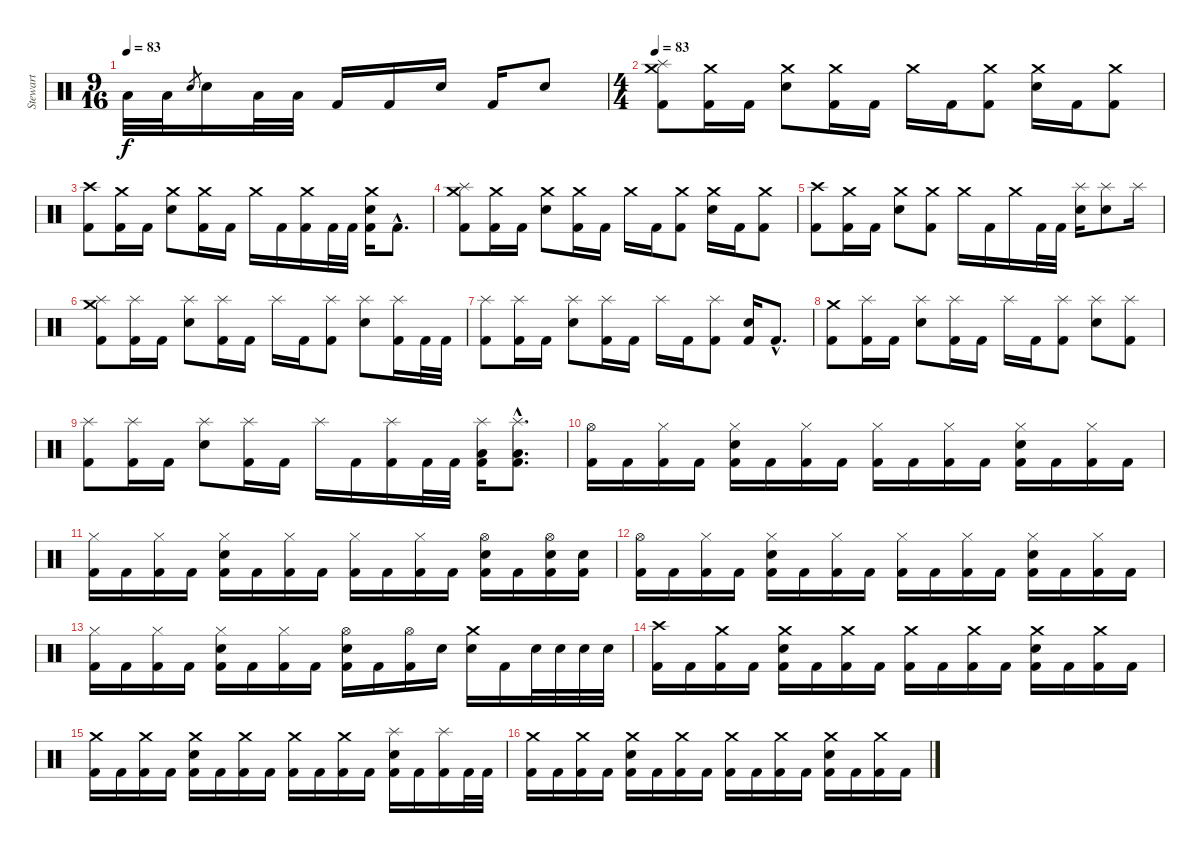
\track ("Stewart" "Stewart") {instrument percussion}
\staff {score}
\articulation defaults
\ts (9 16)
\tempo 83
\tempo 87
\tempo 83
\clef neutral
\ks c "Low Tom (hit)".32{dy f} "Low Tom (hit)".32 "Electric Snare (hit)".8{gr} "Electric Snare (hit)".16 "Low Tom (hit)".32 "Low Tom (hit)".32 "Kick (hit) 2".16 "Kick (hit) 2".16 "Electric Snare (hit)".16 "Kick (hit) 2".16 "Electric Snare (hit)".8
|
\ts (4 4)
\tempo 83
("Crash medium (hit)" "Splash (hit)" "Kick (hit) 2").8 ("Crash medium (hit)" "Kick (hit) 2").16 "Kick (hit) 2".16 ("Crash medium (hit)" "Electric Snare (hit)").8 ("Crash medium (hit)" "Kick (hit) 2").16 "Kick (hit) 2".16 "Crash medium (hit)".16 "Kick (hit) 2".16 ("Crash medium (hit)" "Kick (hit) 2").8 ("Crash medium (hit)" "Electric Snare (hit)").16 "Kick (hit) 2".16 ("Crash medium (hit)" "Kick (hit) 2").8 |
("Crash high (hit)" "Kick (hit) 2").8 ("Crash medium (hit)" "Kick (hit) 2").16 "Kick (hit) 2".16 ("Crash medium (hit)" "Electric Snare (hit)").8 ("Crash medium (hit)" "Kick (hit) 2").16 "Kick (hit) 2".16 "Crash medium (hit)".16 "Kick (hit) 2".16 ("Crash medium (hit)" "Kick (hit) 2").16 "Kick (hit) 2".32 "Kick (hit) 2".32 ("Crash medium (hit)" "Electric Snare (hit)" "Kick (hit) 2").16 "Kick (hit) 2"{hac}.8{d} |
("Crash medium (hit)" "Splash (hit)" "Kick (hit) 2").8 ("Crash medium (hit)" "Kick (hit) 2").16 "Kick (hit) 2".16 ("Crash medium (hit)" "Electric Snare (hit)").8 ("Crash medium (hit)" "Kick (hit) 2").16 "Kick (hit) 2".16 "Crash medium (hit)".16 "Kick (hit) 2".16 ("Crash medium (hit)" "Kick (hit) 2").8 ("Crash medium (hit)" "Electric Snare (hit)").16 "Kick (hit) 2".16 ("Crash medium (hit)" "Kick (hit) 2").8 |
("Crash high (hit)" "Kick (hit) 2").8 ("Crash medium (hit)" "Kick (hit) 2").16 "Kick (hit) 2".16 ("Crash medium (hit)" "Electric Snare (hit)").8 ("Crash medium (hit)" "Kick (hit) 2").8 "Crash medium (hit)".16 "Kick (hit) 2".16 "Crash medium (hit)".16 "Kick (hit) 2".32 "Kick (hit) 2".32 ("Splash (hit)" "Electric Snare (hit)").16 ("Splash (hit)" "Electric Snare (hit)").8 "Splash (hit)".16 |
("Crash medium (hit)" "Splash (hit)" "Kick (hit) 2").8 ("Splash (hit)" "Kick (hit) 2").16 "Kick (hit) 2".16 ("Splash (hit)" "Electric Snare (hit)").8 ("Splash (hit)" "Kick (hit) 2").16 "Kick (hit) 2".16 "Splash (hit)".16 "Kick (hit) 2".16 ("Splash (hit)" "Kick (hit) 2").8 ("Splash (hit)" "Electric Snare (hit)").8 ("Splash (hit)" "Kick (hit) 2").16 "Kick (hit) 2".32 "Kick (hit) 2".32 |
("Splash (hit)" "Kick (hit) 2").8 ("Splash (hit)" "Kick (hit) 2").16 "Kick (hit) 2".16 ("Splash (hit)" "Electric Snare (hit)").8 ("Splash (hit)" "Kick (hit) 2").16 "Kick (hit) 2".16 "Splash (hit)".16 "Kick (hit) 2".16 ("Splash (hit)" "Kick (hit) 2").8 ("Electric Snare (hit)" "Kick (hit) 2").16 "Kick (hit) 2"{hac}.8{d} |
("Crash medium (hit)" "Kick (hit) 2").8 ("Splash (hit)" "Kick (hit) 2").16 "Kick (hit) 2".16 ("Splash (hit)" "Electric Snare (hit)").8 ("Splash (hit)" "Kick (hit) 2").16 "Kick (hit) 2".16 "Splash (hit)".16 "Kick (hit) 2".16 ("Splash (hit)" "Kick (hit) 2").8 ("Splash (hit)" "Electric Snare (hit)").8 ("Splash (hit)" "Kick (hit) 2").8 |
("Splash (hit)" "Kick (hit) 2").8 ("Splash (hit)" "Kick (hit) 2").16 "Kick (hit) 2".16 ("Splash (hit)" "Electric Snare (hit)").8 ("Splash (hit)" "Kick (hit) 2").16 "Kick (hit) 2".16 "Splash (hit)".16 "Kick (hit) 2".16 ("Splash (hit)" "Kick (hit) 2").16 "Kick (hit) 2".32 "Kick (hit) 2".32 ("Splash (hit)" "Low Tom (hit)" "Kick (hit) 2").16 ("Splash (hit)"{hac} "Low Tom (hit)" "Kick (hit) 2").8{d} |
("Hi-Hat (open)" "Kick (hit) 2").16 "Kick (hit) 2".16 ("Hi-Hat (closed)" "Kick (hit) 2").16 "Kick (hit) 2".16 ("Hi-Hat (closed)" "Electric Snare (hit)" "Kick (hit) 2").16 "Kick (hit) 2".16 ("Hi-Hat (closed)" "Kick (hit) 2").16 "Kick (hit) 2".16 ("Hi-Hat (closed)" "Kick (hit) 2").16 "Kick (hit) 2".16 ("Hi-Hat (closed)" "Kick (hit) 2").16 "Kick (hit) 2".16 ("Hi-Hat (closed)" "Electric Snare (hit)" "Kick (hit) 2").16 "Kick (hit) 2".16 ("Hi-Hat (closed)" "Kick (hit) 2").16 "Kick (hit) 2".16 |
("Hi-Hat (closed)" "Kick (hit) 2").16 "Kick (hit) 2".16 ("Hi-Hat (closed)" "Kick (hit) 2").16 "Kick (hit) 2".16 ("Hi-Hat (closed)" "Electric Snare (hit)" "Kick (hit) 2").16 "Kick (hit) 2".16 ("Hi-Hat (closed)" "Kick (hit) 2").16 "Kick (hit) 2".16 ("Hi-Hat (closed)" "Kick (hit) 2").16 "Kick (hit) 2".16 ("Hi-Hat (closed)" "Kick (hit) 2").16 "Kick (hit) 2".16 ("Hi-Hat (open)" "Electric Snare (hit)" "Kick (hit) 2").16 "Kick (hit) 2".16 ("Hi-Hat (open)" "Electric Snare (hit)" "Kick (hit) 2").16 ("Electric Snare (hit)" "Kick (hit) 2").16 |
("Hi-Hat (open)" "Kick (hit) 2").16 "Kick (hit) 2".16 ("Hi-Hat (closed)" "Kick (hit) 2").16 "Kick (hit) 2".16 ("Hi-Hat (closed)" "Electric Snare (hit)" "Kick (hit) 2").16 "Kick (hit) 2".16 ("Hi-Hat (closed)" "Kick (hit) 2").16 "Kick (hit) 2".16 ("Hi-Hat (closed)" "Kick (hit) 2").16 "Kick (hit) 2".16 ("Hi-Hat (closed)" "Kick (hit) 2").16 "Kick (hit) 2".16 ("Hi-Hat (closed)" "Electric Snare (hit)" "Kick (hit) 2").16 "Kick (hit) 2".16 ("Hi-Hat (closed)" "Kick (hit) 2").16 "Kick (hit) 2".16 |
("Hi-Hat (closed)" "Kick (hit) 2").16 "Kick (hit) 2".16 ("Hi-Hat (closed)" "Kick (hit) 2").16 "Kick (hit) 2".16 ("Hi-Hat (closed)" "Electric Snare (hit)" "Kick (hit) 2").16 "Kick (hit) 2".16 ("Hi-Hat (closed)" "Kick (hit) 2").16 "Kick (hit) 2".16 ("Hi-Hat (open)" "Electric Snare (hit)" "Kick (hit) 2").16 "Kick (hit) 2".16 ("Hi-Hat (open)" "Kick (hit) 2").16 "Electric Snare (hit)".16 ("Crash medium (hit)" "Electric Snare (hit)").16 "Kick (hit) 2".16 "Electric Snare (hit)".32 "Electric Snare (hit)".32 "Electric Snare (hit)".32 "Electric Snare (hit)".32 |
("Crash high (hit)" "Kick (hit) 2").16 "Kick (hit) 2".16 ("Crash medium (hit)" "Kick (hit) 2").16 "Kick (hit) 2".16 ("Crash medium (hit)" "Electric Snare (hit)" "Kick (hit) 2").16 "Kick (hit) 2".16 ("Crash medium (hit)" "Kick (hit) 2").16 "Kick (hit) 2".16 ("Crash medium (hit)" "Kick (hit) 2").16 "Kick (hit) 2".16 ("Crash medium (hit)" "Kick (hit) 2").16 "Kick (hit) 2".16 ("Crash medium (hit)" "Electric Snare (hit)" "Kick (hit) 2").16 "Kick (hit) 2".16 ("Crash medium (hit)" "Kick (hit) 2").16 "Kick (hit) 2".16 |
("Crash medium (hit)" "Kick (hit) 2").16 "Kick (hit) 2".16 ("Crash medium (hit)" "Kick (hit) 2").16 "Kick (hit) 2".16 ("Crash medium (hit)" "Electric Snare (hit)" "Kick (hit) 2").16 "Kick (hit) 2".16 ("Crash medium (hit)" "Kick (hit) 2").16 "Kick (hit) 2".16 ("Crash medium (hit)" "Kick (hit) 2").16 "Kick (hit) 2".16 ("Crash medium (hit)" "Kick (hit) 2").16 "Kick (hit) 2".16 ("Splash (hit)" "Electric Snare (hit)" "Kick (hit) 2").16 "Kick (hit) 2".16 ("Splash (hit)" "Kick (hit) 2").16 "Kick (hit) 2".32 "Kick (hit) 2".32 |
("Crash medium (hit)" "Kick (hit) 2").16 "Kick (hit) 2".16 ("Crash medium (hit)" "Kick (hit) 2").16 "Kick (hit) 2".16 ("Crash medium (hit)" "Electric Snare (hit)" "Kick (hit) 2").16 "Kick (hit) 2".16 ("Crash medium (hit)" "Kick (hit) 2").16 "Kick (hit) 2".16 ("Crash medium (hit)" "Kick (hit) 2").16 "Kick (hit) 2".16 ("Crash medium (hit)" "Kick (hit) 2").16 "Kick (hit) 2".16 ("Crash medium (hit)" "Electric Snare (hit)" "Kick (hit) 2").16 "Kick (hit) 2".16 ("Crash medium (hit)" "Kick (hit) 2").16 "Kick (hit) 2".16
